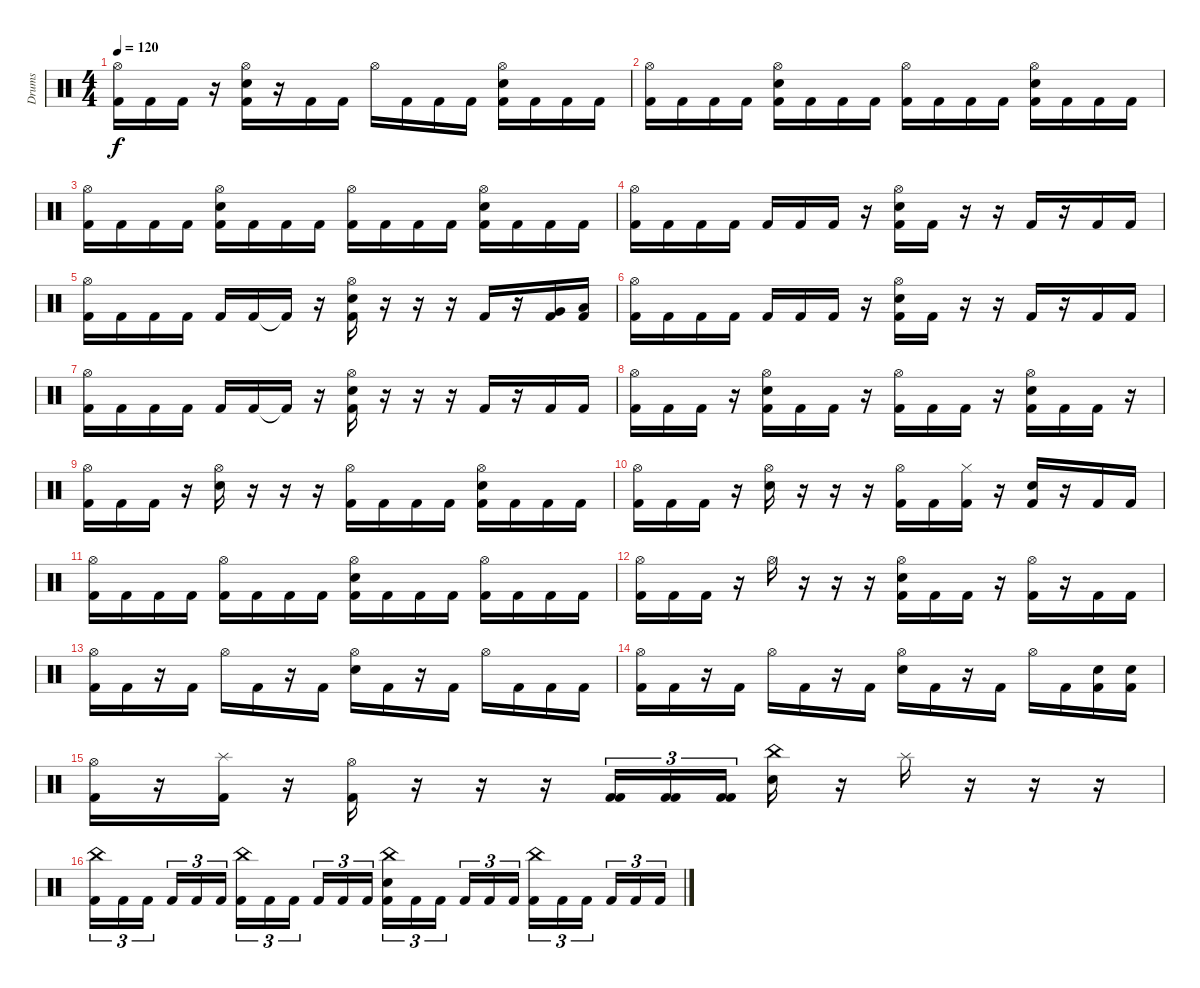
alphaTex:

\track ("Drums" "Drums") {instrument percussion}
\staff {score}
\articulation defaults
\ts (4 4)
\tempo 120
\clef neutral
\ks c
("Hi-Hat (open)" "Kick (hit) 2").16{dy f} "Kick (hit) 2".16 "Kick (hit) 2".16 r.16 ("Hi-Hat (open)" "Snare (hit) 2" "Kick (hit) 2").16 r.16 "Kick (hit) 2".16 "Kick (hit) 2".16 "Hi-Hat (open)".16 "Kick (hit) 2".16 "Kick (hit) 2".16 "Kick (hit) 2".16 ("Hi-Hat (open)" "Snare (hit) 2" "Kick (hit) 2").16 "Kick (hit) 2".16 "Kick (hit) 2".16 "Kick (hit) 2".16 |
("Hi-Hat (open)" "Kick (hit) 2").16 "Kick (hit) 2".16 "Kick (hit) 2".16 "Kick (hit) 2".16 ("Hi-Hat (open)" "Snare (hit) 2" "Kick (hit) 2").16 "Kick (hit) 2".16 "Kick (hit) 2".16 "Kick (hit) 2".16 ("Hi-Hat (open)" "Kick (hit) 2").16 "Kick (hit) 2".16 "Kick (hit) 2".16 "Kick (hit) 2".16 ("Hi-Hat (open)" "Snare (hit) 2" "Kick (hit) 2").16 "Kick (hit) 2".16 "Kick (hit) 2".16 "Kick (hit) 2".16 |
("Hi-Hat (open)" "Kick (hit) 2").16 "Kick (hit) 2".16 "Kick (hit) 2".16 "Kick (hit) 2".16 ("Hi-Hat (open)" "Snare (hit) 2" "Kick (hit) 2").16 "Kick (hit) 2".16 "Kick (hit) 2".16 "Kick (hit) 2".16 ("Hi-Hat (open)" "Kick (hit) 2").16 "Kick (hit) 2".16 "Kick (hit) 2".16 "Kick (hit) 2".16 ("Hi-Hat (open)" "Snare (hit) 2" "Kick (hit) 2").16 "Kick (hit) 2".16 "Kick (hit) 2".16 "Kick (hit) 2".16 |
("Hi-Hat (open)" "Kick (hit) 2").16 "Kick (hit) 2".16 "Kick (hit) 2".16 "Kick (hit) 2".16 "Kick (hit) 2".16 "Kick (hit) 2".16 "Kick (hit) 2".16 r.16 ("Hi-Hat (open)" "Snare (hit) 2" "Kick (hit) 2").16 "Kick (hit) 2".16 r.16 r.16 "Kick (hit) 2".16 r.16 "Kick (hit) 2".16 "Kick (hit) 2".16 |
("Hi-Hat (open)" "Kick (hit) 2").16 "Kick (hit) 2".16 "Kick (hit) 2".16 "Kick (hit) 2".16 "Kick (hit) 2".16 "Kick (hit) 2".16 "Kick (hit) 2"{t}.16 r.16 ("Hi-Hat (open)" "Snare (hit) 2" "Kick (hit) 2").16 r.16 r.16 r.16 "Kick (hit) 2".16 r.16 ("Very Low Tom (hit)" "Kick (hit) 2").16 ("Low Floor Tom (hit)" "Kick (hit) 2").16 |
("Hi-Hat (open)" "Kick (hit) 2").16 "Kick (hit) 2".16 "Kick (hit) 2".16 "Kick (hit) 2".16 "Kick (hit) 2".16 "Kick (hit) 2".16 "Kick (hit) 2".16 r.16 ("Hi-Hat (open)" "Snare (hit) 2" "Kick (hit) 2").16 "Kick (hit) 2".16 r.16 r.16 "Kick (hit) 2".16 r.16 "Kick (hit) 2".16 "Kick (hit) 2".16 |
("Hi-Hat (open)" "Kick (hit) 2").16 "Kick (hit) 2".16 "Kick (hit) 2".16 "Kick (hit) 2".16 "Kick (hit) 2".16 "Kick (hit) 2".16 "Kick (hit) 2"{t}.16 r.16 ("Hi-Hat (open)" "Snare (hit) 2" "Kick (hit) 2").16 r.16 r.16 r.16 "Kick (hit) 2".16 r.16 "Kick (hit) 2".16 "Kick (hit) 2".16 |
("Hi-Hat (open)" "Kick (hit) 2").16 "Kick (hit) 2".16 "Kick (hit) 2".16 r.16 ("Hi-Hat (open)" "Snare (hit) 2" "Kick (hit) 2").16 "Kick (hit) 2".16 "Kick (hit) 2".16 r.16 ("Hi-Hat (open)" "Kick (hit) 2").16 "Kick (hit) 2".16 "Kick (hit) 2".16 r.16 ("Hi-Hat (open)" "Snare (hit) 2" "Kick (hit) 2").16 "Kick (hit) 2".16 "Kick (hit) 2".16 r.16 |
("Hi-Hat (open)" "Kick (hit) 2").16 "Kick (hit) 2".16 "Kick (hit) 2".16 r.16 ("Hi-Hat (open)" "Snare (hit) 2").16 r.16 r.16 r.16 ("Hi-Hat (open)" "Kick (hit) 2").16 "Kick (hit) 2".16 "Kick (hit) 2".16 "Kick (hit) 2".16 ("Hi-Hat (open)" "Snare (hit) 2" "Kick (hit) 2").16 "Kick (hit) 2".16 "Kick (hit) 2".16 "Kick (hit) 2".16 |
("Hi-Hat (open)" "Kick (hit) 2").16 "Kick (hit) 2".16 "Kick (hit) 2".16 r.16 ("Hi-Hat (open)" "Snare (hit) 2").16 r.16 r.16 r.16 ("Hi-Hat (open)" "Kick (hit) 2").16 "Kick (hit) 2".16 ("Hi-Hat (closed)" "Kick (hit) 2").16 r.16 ("Snare (hit) 2" "Kick (hit) 2").16 r.16 "Kick (hit) 2".16 "Kick (hit) 2".16 |
("Hi-Hat (open)" "Kick (hit) 2").16 "Kick (hit) 2".16 "Kick (hit) 2".16 "Kick (hit) 2".16 ("Hi-Hat (open)" "Kick (hit) 2").16 "Kick (hit) 2".16 "Kick (hit) 2".16 "Kick (hit) 2".16 ("Hi-Hat (open)" "Snare (hit) 2" "Kick (hit) 2").16 "Kick (hit) 2".16 "Kick (hit) 2".16 "Kick (hit) 2".16 ("Hi-Hat (open)" "Kick (hit) 2").16 "Kick (hit) 2".16 "Kick (hit) 2".16 "Kick (hit) 2".16 |
("Hi-Hat (open)" "Kick (hit) 2").16 "Kick (hit) 2".16 "Kick (hit) 2".16 r.16 "Hi-Hat (open)".16 r.16 r.16 r.16 ("Hi-Hat (open)" "Snare (hit) 2" "Kick (hit) 2").16 "Kick (hit) 2".16 "Kick (hit) 2".16 r.16 ("Hi-Hat (open)" "Kick (hit) 2").16 r.16 "Kick (hit) 2".16 "Kick (hit) 2".16 |
("Hi-Hat (open)" "Kick (hit) 2").16 "Kick (hit) 2".16 r.16 "Kick (hit) 2".16 "Hi-Hat (open)".16 "Kick (hit) 2".16 r.16 "Kick (hit) 2".16 ("Hi-Hat (open)" "Snare (hit) 2").16 "Kick (hit) 2".16 r.16 "Kick (hit) 2".16 "Hi-Hat (open)".16 "Kick (hit) 2".16 "Kick (hit) 2".16 "Kick (hit) 2".16 |
("Hi-Hat (open)" "Kick (hit) 2").16 "Kick (hit) 2".16 r.16 "Kick (hit) 2".16 "Hi-Hat (open)".16 "Kick (hit) 2".16 r.16 "Kick (hit) 2".16 ("Hi-Hat (open)" "Snare (hit) 2").16 "Kick (hit) 2".16 r.16 "Kick (hit) 2".16 "Hi-Hat (open)".16 "Kick (hit) 2".16 ("Snare (hit) 2" "Kick (hit) 2").16 ("Snare (hit) 2" "Kick (hit) 2").16 |
("Hi-Hat (open)" "Kick (hit) 2").16 r.16 ("Splash (hit)" "Kick (hit) 2").16 r.16 ("Hi-Hat (open)" "Kick (hit) 2").16 r.16 r.16 r.16 ("Kick (hit) 2" "Kick (hit) 2").16{tu (3 2)} ("Kick (hit) 2" "Kick (hit) 2").16{tu (3 2)} ("Kick (hit) 2" "Kick (hit) 2").16{tu (3 2) beam splitsecondary} ("China (hit)" "Snare (hit) 2").16 r.16 "Splash (hit)".16 r.16 r.16 r.16 |
("China (hit)" "Kick (hit) 2").16{tu (3 2)} "Kick (hit) 2".16{tu (3 2)} "Kick (hit) 2".16{tu (3 2) beam splitsecondary} "Kick (hit) 2".16{tu (3 2)} "Kick (hit) 2".16{tu (3 2)} "Kick (hit) 2".16{tu (3 2)} ("China (hit)" "Kick (hit) 2").16{tu (3 2)} "Kick (hit) 2".16{tu (3 2)} "Kick (hit) 2".16{tu (3 2) beam splitsecondary} "Kick (hit) 2".16{tu (3 2)} "Kick (hit) 2".16{tu (3 2)} "Kick (hit) 2".16{tu (3 2)} ("China (hit)" "Snare (hit) 2" "Kick (hit) 2").16{tu (3 2)} "Kick (hit) 2".16{tu (3 2)} "Kick (hit) 2".16{tu (3 2) beam splitsecondary} "Kick (hit) 2".16{tu (3 2)} "Kick (hit) 2".16{tu (3 2)} "Kick (hit) 2".16{tu (3 2)} ("China (hit)" "Kick (hit) 2").16{tu (3 2)} "Kick (hit) 2".16{tu (3 2)} "Kick (hit) 2".16{tu (3 2) beam splitsecondary} "Kick (hit) 2".16{tu (3 2)} "Kick (hit) 2".16{tu (3 2)} "Kick (hit) 2".16{tu (3 2)}
